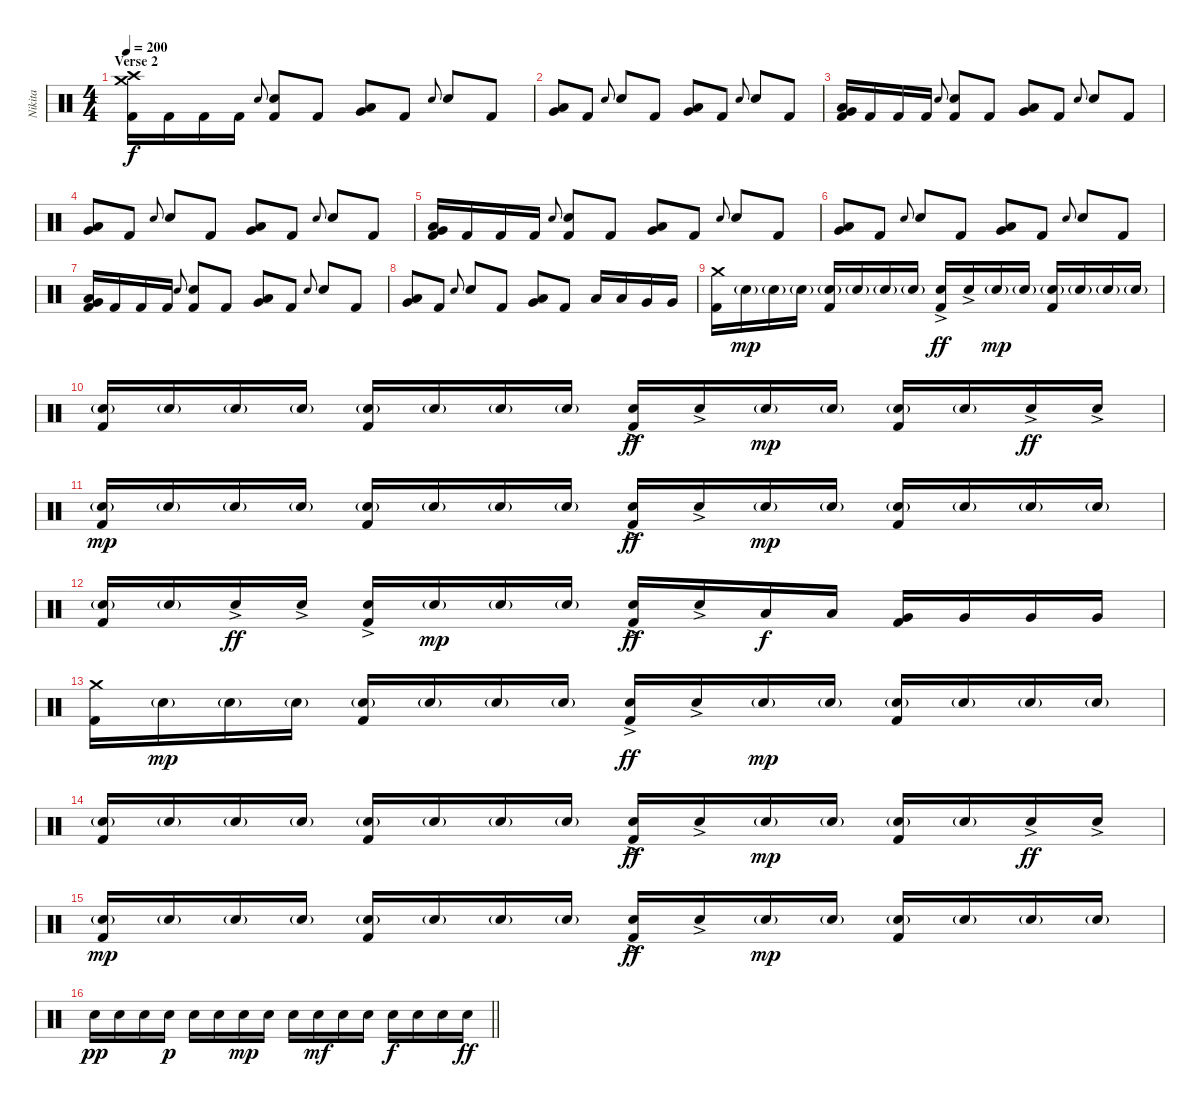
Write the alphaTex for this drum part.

\track ("Nikita" "Nikita") {instrument percussion}
\staff {score}
\articulation defaults
\ts (4 4)
\section ("" "Verse 2")
\tempo 200
\clef neutral
\ks c
("Crash medium (hit)" "Crash high (hit)" "Kick (hit) 2").16{dy f} "Kick (hit) 2".16 "Kick (hit) 2".16 "Kick (hit) 2".16 "Electric Snare (hit)"{x}.8{gr onbeat} ("Electric Snare (hit)" "Kick (hit) 2").8 "Kick (hit) 2".8 ("Low Tom (hit)" "Very Low Tom (hit)").8 "Kick (hit) 2".8 "Electric Snare (hit)"{x}.8{gr onbeat} "Electric Snare (hit)".8 "Kick (hit) 2".8 |
("Low Tom (hit)" "Very Low Tom (hit)").8 "Kick (hit) 2".8 "Electric Snare (hit)"{x}.8{gr onbeat} "Electric Snare (hit)".8 "Kick (hit) 2".8 ("Very Low Tom (hit)" "Low Tom (hit)").8 "Kick (hit) 2".8 "Electric Snare (hit)"{x}.8{gr onbeat} "Electric Snare (hit)".8 "Kick (hit) 2".8 |
("Low Tom (hit)" "Very Low Tom (hit)" "Kick (hit) 2").16 "Kick (hit) 2".16 "Kick (hit) 2".16 "Kick (hit) 2".16 "Electric Snare (hit)"{x}.8{gr onbeat} ("Electric Snare (hit)" "Kick (hit) 2").8 "Kick (hit) 2".8 ("Low Tom (hit)" "Very Low Tom (hit)").8 "Kick (hit) 2".8 "Electric Snare (hit)"{x}.8{gr onbeat} "Electric Snare (hit)".8 "Kick (hit) 2".8 |
("Low Tom (hit)" "Very Low Tom (hit)").8 "Kick (hit) 2".8 "Electric Snare (hit)"{x}.8{gr onbeat} "Electric Snare (hit)".8 "Kick (hit) 2".8 ("Low Tom (hit)" "Very Low Tom (hit)").8 "Kick (hit) 2".8 "Electric Snare (hit)"{x}.8{gr onbeat} "Electric Snare (hit)".8 "Kick (hit) 2".8 |
("Low Tom (hit)" "Very Low Tom (hit)" "Kick (hit) 2").16 "Kick (hit) 2".16 "Kick (hit) 2".16 "Kick (hit) 2".16 "Electric Snare (hit)"{x}.8{gr onbeat} ("Electric Snare (hit)" "Kick (hit) 2").8 "Kick (hit) 2".8 ("Low Tom (hit)" "Very Low Tom (hit)").8 "Kick (hit) 2".8 "Electric Snare (hit)"{x}.8{gr onbeat} "Electric Snare (hit)".8 "Kick (hit) 2".8 |
("Low Tom (hit)" "Very Low Tom (hit)").8 "Kick (hit) 2".8 "Electric Snare (hit)"{x}.8{gr onbeat} "Electric Snare (hit)".8 "Kick (hit) 2".8 ("Low Tom (hit)" "Very Low Tom (hit)").8 "Kick (hit) 2".8 "Electric Snare (hit)"{x}.8{gr onbeat} "Electric Snare (hit)".8 "Kick (hit) 2".8 |
("Low Tom (hit)" "Very Low Tom (hit)" "Kick (hit) 2").16 "Kick (hit) 2".16 "Kick (hit) 2".16 "Kick (hit) 2".16 "Electric Snare (hit)"{x}.8{gr onbeat} ("Electric Snare (hit)" "Kick (hit) 2").8 "Kick (hit) 2".8 ("Low Tom (hit)" "Very Low Tom (hit)").8 "Kick (hit) 2".8 "Electric Snare (hit)"{x}.8{gr onbeat} "Electric Snare (hit)".8 "Kick (hit) 2".8 |
("Low Tom (hit)" "Very Low Tom (hit)").8 "Kick (hit) 2".8 "Electric Snare (hit)"{x}.8{gr onbeat} "Electric Snare (hit)".8 "Kick (hit) 2".8 ("Low Tom (hit)" "Very Low Tom (hit)").8 "Kick (hit) 2".8 "Low Tom (hit)".16 "Low Tom (hit)".16 "Very Low Tom (hit)".16 "Very Low Tom (hit)".16 |
("Crash medium (hit)" "Kick (hit) 2").16 "Electric Snare (hit)"{g}.16{dy mp} "Electric Snare (hit)"{g}.16 "Electric Snare (hit)"{g}.16 ("Electric Snare (hit)"{g} "Kick (hit) 2").16 "Electric Snare (hit)"{g}.16 "Electric Snare (hit)"{g}.16 "Electric Snare (hit)"{g}.16 ("Electric Snare (hit)"{ac} "Kick (hit) 2").16{dy ff} "Electric Snare (hit)"{ac}.16 "Electric Snare (hit)"{g}.16{dy mp} "Electric Snare (hit)"{g}.16 ("Electric Snare (hit)"{g} "Kick (hit) 2").16 "Electric Snare (hit)"{g}.16 "Electric Snare (hit)"{g}.16 "Electric Snare (hit)"{g}.16 |
("Electric Snare (hit)"{g} "Kick (hit) 2").16 "Electric Snare (hit)"{g}.16 "Electric Snare (hit)"{g}.16 "Electric Snare (hit)"{g}.16 ("Electric Snare (hit)"{g} "Kick (hit) 2").16 "Electric Snare (hit)"{g}.16 "Electric Snare (hit)"{g}.16 "Electric Snare (hit)"{g}.16 ("Electric Snare (hit)"{ac} "Kick (hit) 2").16{dy ff} "Electric Snare (hit)"{ac}.16 "Electric Snare (hit)"{g}.16{dy mp} "Electric Snare (hit)"{g}.16 ("Electric Snare (hit)"{g} "Kick (hit) 2").16 "Electric Snare (hit)"{g}.16 "Electric Snare (hit)"{ac}.16{dy ff} "Electric Snare (hit)"{ac}.16 |
("Electric Snare (hit)"{g} "Kick (hit) 2").16{dy mp} "Electric Snare (hit)"{g}.16 "Electric Snare (hit)"{g}.16 "Electric Snare (hit)"{g}.16 ("Electric Snare (hit)"{g} "Kick (hit) 2").16 "Electric Snare (hit)"{g}.16 "Electric Snare (hit)"{g}.16 "Electric Snare (hit)"{g}.16 ("Electric Snare (hit)"{ac} "Kick (hit) 2").16{dy ff} "Electric Snare (hit)"{ac}.16 "Electric Snare (hit)"{g}.16{dy mp} "Electric Snare (hit)"{g}.16 ("Electric Snare (hit)"{g} "Kick (hit) 2").16 "Electric Snare (hit)"{g}.16 "Electric Snare (hit)"{g}.16 "Electric Snare (hit)"{g}.16 |
("Electric Snare (hit)"{g} "Kick (hit) 2").16 "Electric Snare (hit)"{g}.16 "Electric Snare (hit)"{ac}.16{dy ff} "Electric Snare (hit)"{ac}.16 ("Electric Snare (hit)"{ac} "Kick (hit) 2").16 "Electric Snare (hit)"{g}.16{dy mp} "Electric Snare (hit)"{g}.16 "Electric Snare (hit)"{g}.16 ("Electric Snare (hit)"{ac} "Kick (hit) 2").16{dy ff} "Electric Snare (hit)"{ac}.16 "Low Tom (hit)".16{dy f} "Low Tom (hit)".16 ("Very Low Tom (hit)" "Kick (hit) 2").16 "Very Low Tom (hit)".16 "Very Low Tom (hit)".16 "Very Low Tom (hit)".16 |
("Crash medium (hit)" "Kick (hit) 2").16 "Electric Snare (hit)"{g}.16{dy mp} "Electric Snare (hit)"{g}.16 "Electric Snare (hit)"{g}.16 ("Electric Snare (hit)"{g} "Kick (hit) 2").16 "Electric Snare (hit)"{g}.16 "Electric Snare (hit)"{g}.16 "Electric Snare (hit)"{g}.16 ("Electric Snare (hit)"{ac} "Kick (hit) 2").16{dy ff} "Electric Snare (hit)"{ac}.16 "Electric Snare (hit)"{g}.16{dy mp} "Electric Snare (hit)"{g}.16 ("Electric Snare (hit)"{g} "Kick (hit) 2").16 "Electric Snare (hit)"{g}.16 "Electric Snare (hit)"{g}.16 "Electric Snare (hit)"{g}.16 |
("Electric Snare (hit)"{g} "Kick (hit) 2").16 "Electric Snare (hit)"{g}.16 "Electric Snare (hit)"{g}.16 "Electric Snare (hit)"{g}.16 ("Electric Snare (hit)"{g} "Kick (hit) 2").16 "Electric Snare (hit)"{g}.16 "Electric Snare (hit)"{g}.16 "Electric Snare (hit)"{g}.16 ("Electric Snare (hit)"{ac} "Kick (hit) 2").16{dy ff} "Electric Snare (hit)"{ac}.16 "Electric Snare (hit)"{g}.16{dy mp} "Electric Snare (hit)"{g}.16 ("Electric Snare (hit)"{g} "Kick (hit) 2").16 "Electric Snare (hit)"{g}.16 "Electric Snare (hit)"{ac}.16{dy ff} "Electric Snare (hit)"{ac}.16 |
("Electric Snare (hit)"{g} "Kick (hit) 2").16{dy mp} "Electric Snare (hit)"{g}.16 "Electric Snare (hit)"{g}.16 "Electric Snare (hit)"{g}.16 ("Electric Snare (hit)"{g} "Kick (hit) 2").16 "Electric Snare (hit)"{g}.16 "Electric Snare (hit)"{g}.16 "Electric Snare (hit)"{g}.16 ("Electric Snare (hit)"{ac} "Kick (hit) 2").16{dy ff} "Electric Snare (hit)"{ac}.16 "Electric Snare (hit)"{g}.16{dy mp} "Electric Snare (hit)"{g}.16 ("Electric Snare (hit)"{g} "Kick (hit) 2").16 "Electric Snare (hit)"{g}.16 "Electric Snare (hit)"{g}.16 "Electric Snare (hit)"{g}.16 |
\barLineRight lightlight "Electric Snare (hit)".16{dy pp} "Electric Snare (hit)".16 "Electric Snare (hit)".16 "Electric Snare (hit)".16{dy p} "Electric Snare (hit)".16 "Electric Snare (hit)".16 "Electric Snare (hit)".16{dy mp} "Electric Snare (hit)".16 "Electric Snare (hit)".16 "Electric Snare (hit)".16{dy mf} "Electric Snare (hit)".16 "Electric Snare (hit)".16 "Electric Snare (hit)".16{dy f} "Electric Snare (hit)".16 "Electric Snare (hit)".16 "Electric Snare (hit)".16{dy ff}
